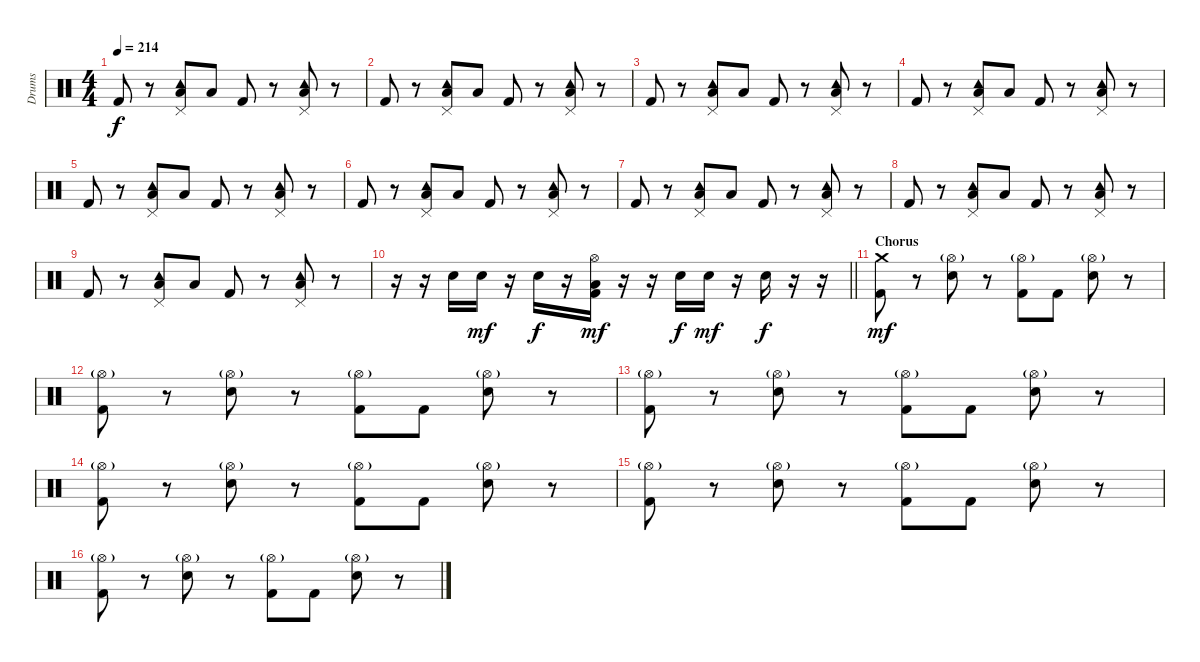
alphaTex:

\track ("Drums" "Drums") {instrument percussion}
\staff {score}
\articulation defaults
\ts (4 4)
\tempo 214
\clef neutral
\ks c "Kick (hit) 2".8{dy f}
r.8 ("Pedal Hi-Hat (hit)" "Tambourine (hit)" "Low Tom (hit)").8 "Low Tom (hit)".8 "Kick (hit) 2".8 r.8 ("Pedal Hi-Hat (hit)" "Tambourine (hit)" "Low Tom (hit)").8 r.8 |
"Kick (hit) 2".8 r.8 ("Pedal Hi-Hat (hit)" "Tambourine (hit)" "Low Tom (hit)").8 "Low Tom (hit)".8 "Kick (hit) 2".8 r.8 ("Pedal Hi-Hat (hit)" "Tambourine (hit)" "Low Tom (hit)").8 r.8 |
"Kick (hit) 2".8 r.8 ("Pedal Hi-Hat (hit)" "Tambourine (hit)" "Low Tom (hit)").8 "Low Tom (hit)".8 "Kick (hit) 2".8 r.8 ("Pedal Hi-Hat (hit)" "Tambourine (hit)" "Low Tom (hit)").8 r.8 |
"Kick (hit) 2".8 r.8 ("Pedal Hi-Hat (hit)" "Tambourine (hit)" "Low Tom (hit)").8 "Low Tom (hit)".8 "Kick (hit) 2".8 r.8 ("Pedal Hi-Hat (hit)" "Tambourine (hit)" "Low Tom (hit)").8 r.8 |
"Kick (hit) 2".8 r.8 ("Pedal Hi-Hat (hit)" "Tambourine (hit)" "Low Tom (hit)").8 "Low Tom (hit)".8 "Kick (hit) 2".8 r.8 ("Pedal Hi-Hat (hit)" "Tambourine (hit)" "Low Tom (hit)").8 r.8 |
"Kick (hit) 2".8 r.8 ("Pedal Hi-Hat (hit)" "Tambourine (hit)" "Low Tom (hit)").8 "Low Tom (hit)".8 "Kick (hit) 2".8 r.8 ("Pedal Hi-Hat (hit)" "Tambourine (hit)" "Low Tom (hit)").8 r.8 |
"Kick (hit) 2".8 r.8 ("Pedal Hi-Hat (hit)" "Tambourine (hit)" "Low Tom (hit)").8 "Low Tom (hit)".8 "Kick (hit) 2".8 r.8 ("Pedal Hi-Hat (hit)" "Tambourine (hit)" "Low Tom (hit)").8 r.8 |
"Kick (hit) 2".8 r.8 ("Pedal Hi-Hat (hit)" "Tambourine (hit)" "Low Tom (hit)").8 "Low Tom (hit)".8 "Kick (hit) 2".8 r.8 ("Pedal Hi-Hat (hit)" "Tambourine (hit)" "Low Tom (hit)").8 r.8 |
"Kick (hit) 2".8 r.8 ("Pedal Hi-Hat (hit)" "Tambourine (hit)" "Low Tom (hit)").8 "Low Tom (hit)".8 "Kick (hit) 2".8 r.8 ("Pedal Hi-Hat (hit)" "Tambourine (hit)" "Low Tom (hit)").8 r.8 |
\barLineRight lightlight
r.16 r.16 "Snare (hit) 2".16 "Snare (hit) 2".16{dy mf} r.16 "Snare (hit) 2".16{dy f} r.16 ("Hi-Hat (open)" "Low Tom (hit)" "Kick (hit) 2").16{dy mf} r.16 r.16 "Snare (hit) 2".16{dy f} "Snare (hit) 2".16{dy mf} r.16 "Snare (hit) 2".16{dy f} r.16 r.16 |
\section ("" "Chorus")
("Crash medium (hit)" "Kick (hit) 2").8{dy mf} r.8 ("Hi-Hat (open)"{g} "Snare (hit) 2").8 r.8 ("Hi-Hat (open)"{g} "Kick (hit) 2").8 "Kick (hit) 2".8 ("Hi-Hat (open)"{g} "Snare (hit) 2").8 r.8 |
("Hi-Hat (open)"{g} "Kick (hit) 2").8 r.8 ("Hi-Hat (open)"{g} "Snare (hit) 2").8 r.8 ("Hi-Hat (open)"{g} "Kick (hit) 2").8 "Kick (hit) 2".8 ("Hi-Hat (open)"{g} "Snare (hit) 2").8 r.8 |
("Hi-Hat (open)"{g} "Kick (hit) 2").8 r.8 ("Hi-Hat (open)"{g} "Snare (hit) 2").8 r.8 ("Hi-Hat (open)"{g} "Kick (hit) 2").8 "Kick (hit) 2".8 ("Hi-Hat (open)"{g} "Snare (hit) 2").8 r.8 |
("Hi-Hat (open)"{g} "Kick (hit) 2").8 r.8 ("Hi-Hat (open)"{g} "Snare (hit) 2").8 r.8 ("Hi-Hat (open)"{g} "Kick (hit) 2").8 "Kick (hit) 2".8 ("Hi-Hat (open)"{g} "Snare (hit) 2").8 r.8 |
("Hi-Hat (open)"{g} "Kick (hit) 2").8 r.8 ("Hi-Hat (open)"{g} "Snare (hit) 2").8 r.8 ("Hi-Hat (open)"{g} "Kick (hit) 2").8 "Kick (hit) 2".8 ("Hi-Hat (open)"{g} "Snare (hit) 2").8 r.8 |
("Hi-Hat (open)"{g} "Kick (hit) 2").8 r.8 ("Hi-Hat (open)"{g} "Snare (hit) 2").8 r.8 ("Hi-Hat (open)"{g} "Kick (hit) 2").8 "Kick (hit) 2".8 ("Hi-Hat (open)"{g} "Snare (hit) 2").8 r.8
